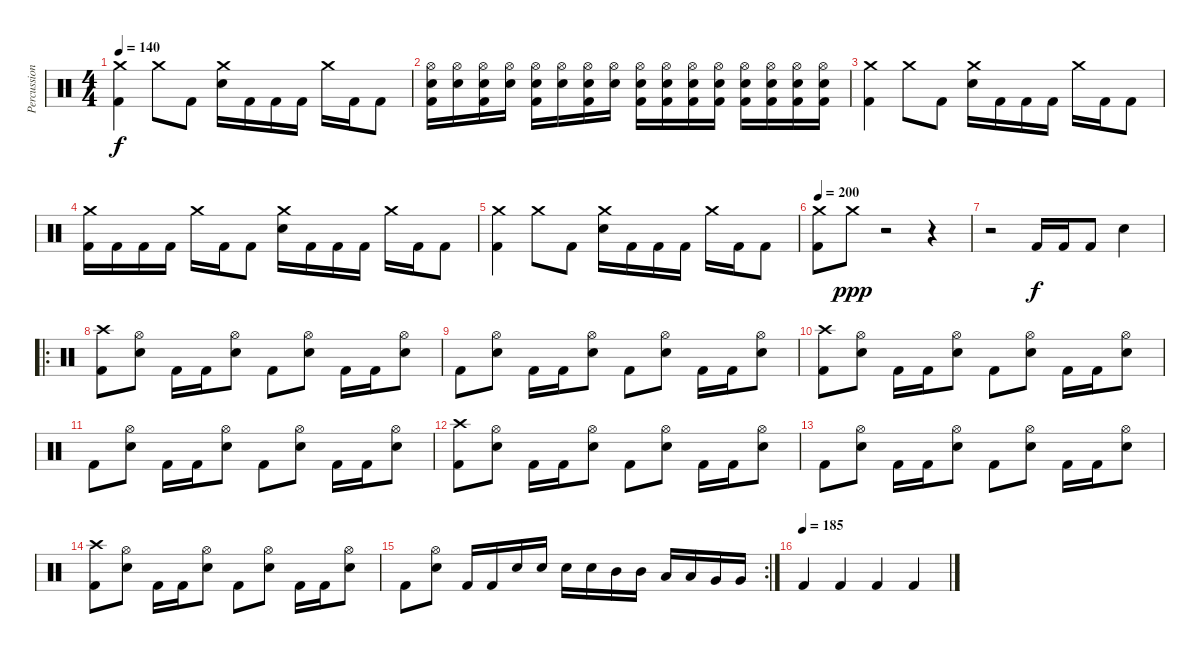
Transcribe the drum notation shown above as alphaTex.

\track ("Percussion" "Percussion") {instrument percussion}
\staff {score}
\articulation defaults
\ts (4 4)
\tempo 140
\clef neutral
\ks c
("Crash medium (hit)" "Kick (hit) 2").4{dy f} "Crash medium (hit)".8 "Kick (hit) 2".8 ("Crash medium (hit)" "Snare (hit) 2").16 "Kick (hit) 2".16 "Kick (hit) 2".16 "Kick (hit) 2".16 "Crash medium (hit)".16 "Kick (hit) 2".16 "Kick (hit) 2".8 |
("Hi-Hat (open)" "Snare (hit) 2" "Kick (hit) 2").16 ("Hi-Hat (open)" "Snare (hit) 2").16 ("Hi-Hat (open)" "Snare (hit) 2" "Kick (hit) 2").16 ("Hi-Hat (open)" "Snare (hit) 2").16 ("Hi-Hat (open)" "Snare (hit) 2" "Kick (hit) 2").16 ("Hi-Hat (open)" "Snare (hit) 2").16 ("Hi-Hat (open)" "Snare (hit) 2" "Kick (hit) 2").16 ("Hi-Hat (open)" "Snare (hit) 2").16 ("Hi-Hat (open)" "Snare (hit) 2" "Kick (hit) 2").16 ("Hi-Hat (open)" "Snare (hit) 2" "Kick (hit) 2").16 ("Hi-Hat (open)" "Snare (hit) 2" "Kick (hit) 2").16 ("Hi-Hat (open)" "Snare (hit) 2" "Kick (hit) 2").16 ("Hi-Hat (open)" "Snare (hit) 2" "Kick (hit) 2").16 ("Hi-Hat (open)" "Snare (hit) 2" "Kick (hit) 2").16 ("Hi-Hat (open)" "Snare (hit) 2" "Kick (hit) 2").16 ("Hi-Hat (open)" "Snare (hit) 2" "Kick (hit) 2").16 |
("Crash medium (hit)" "Kick (hit) 2").4 "Crash medium (hit)".8 "Kick (hit) 2".8 ("Crash medium (hit)" "Snare (hit) 2").16 "Kick (hit) 2".16 "Kick (hit) 2".16 "Kick (hit) 2".16 "Crash medium (hit)".16 "Kick (hit) 2".16 "Kick (hit) 2".8 |
("Crash medium (hit)" "Kick (hit) 2").16 "Kick (hit) 2".16 "Kick (hit) 2".16 "Kick (hit) 2".16 "Crash medium (hit)".16 "Kick (hit) 2".16 "Kick (hit) 2".8 ("Crash medium (hit)" "Snare (hit) 2").16 "Kick (hit) 2".16 "Kick (hit) 2".16 "Kick (hit) 2".16 "Crash medium (hit)".16 "Kick (hit) 2".16 "Kick (hit) 2".8 |
("Crash medium (hit)" "Kick (hit) 2").4 "Crash medium (hit)".8 "Kick (hit) 2".8 ("Crash medium (hit)" "Snare (hit) 2").16 "Kick (hit) 2".16 "Kick (hit) 2".16 "Kick (hit) 2".16 "Crash medium (hit)".16 "Kick (hit) 2".16 "Kick (hit) 2".8 |
\tempo 200
("Crash medium (hit)" "Kick (hit) 2").8 "Crash medium (hit)".8{dy ppp} r.2 r.4 |
r.2 "Kick (hit) 2".16{dy f} "Kick (hit) 2".16 "Kick (hit) 2".8 "Snare (hit) 2".4 |
\ro
("Crash high (hit)" "Kick (hit) 2").8 ("Hi-Hat (open)" "Snare (hit) 2").8 "Kick (hit) 2".16 "Kick (hit) 2".16 ("Hi-Hat (open)" "Snare (hit) 2").8 "Kick (hit) 2".8 ("Hi-Hat (open)" "Snare (hit) 2").8 "Kick (hit) 2".16 "Kick (hit) 2".16 ("Hi-Hat (open)" "Snare (hit) 2").8 |
"Kick (hit) 2".8 ("Hi-Hat (open)" "Snare (hit) 2").8 "Kick (hit) 2".16 "Kick (hit) 2".16 ("Hi-Hat (open)" "Snare (hit) 2").8 "Kick (hit) 2".8 ("Hi-Hat (open)" "Snare (hit) 2").8 "Kick (hit) 2".16 "Kick (hit) 2".16 ("Hi-Hat (open)" "Snare (hit) 2").8 |
("Crash high (hit)" "Kick (hit) 2").8 ("Hi-Hat (open)" "Snare (hit) 2").8 "Kick (hit) 2".16 "Kick (hit) 2".16 ("Hi-Hat (open)" "Snare (hit) 2").8 "Kick (hit) 2".8 ("Hi-Hat (open)" "Snare (hit) 2").8 "Kick (hit) 2".16 "Kick (hit) 2".16 ("Hi-Hat (open)" "Snare (hit) 2").8 |
"Kick (hit) 2".8 ("Hi-Hat (open)" "Snare (hit) 2").8 "Kick (hit) 2".16 "Kick (hit) 2".16 ("Hi-Hat (open)" "Snare (hit) 2").8 "Kick (hit) 2".8 ("Hi-Hat (open)" "Snare (hit) 2").8 "Kick (hit) 2".16 "Kick (hit) 2".16 ("Hi-Hat (open)" "Snare (hit) 2").8 |
("Crash high (hit)" "Kick (hit) 2").8 ("Hi-Hat (open)" "Snare (hit) 2").8 "Kick (hit) 2".16 "Kick (hit) 2".16 ("Hi-Hat (open)" "Snare (hit) 2").8 "Kick (hit) 2".8 ("Hi-Hat (open)" "Snare (hit) 2").8 "Kick (hit) 2".16 "Kick (hit) 2".16 ("Hi-Hat (open)" "Snare (hit) 2").8 |
"Kick (hit) 2".8 ("Hi-Hat (open)" "Snare (hit) 2").8 "Kick (hit) 2".16 "Kick (hit) 2".16 ("Hi-Hat (open)" "Snare (hit) 2").8 "Kick (hit) 2".8 ("Hi-Hat (open)" "Snare (hit) 2").8 "Kick (hit) 2".16 "Kick (hit) 2".16 ("Hi-Hat (open)" "Snare (hit) 2").8 |
("Crash high (hit)" "Kick (hit) 2").8 ("Hi-Hat (open)" "Snare (hit) 2").8 "Kick (hit) 2".16 "Kick (hit) 2".16 ("Hi-Hat (open)" "Snare (hit) 2").8 "Kick (hit) 2".8 ("Hi-Hat (open)" "Snare (hit) 2").8 "Kick (hit) 2".16 "Kick (hit) 2".16 ("Hi-Hat (open)" "Snare (hit) 2").8 |
\rc 2 "Kick (hit) 2".8
("Hi-Hat (open)" "Snare (hit) 2").8 "Kick (hit) 2".16 "Kick (hit) 2".16 "Snare (hit) 2".16 "Snare (hit) 2".16 "Snare (hit) 2".16 "Snare (hit) 2".16 "Mid Tom (hit)".16 "Mid Tom (hit)".16 "Low Tom (hit)".16 "Low Tom (hit)".16 "Very Low Tom (hit)".16 "Very Low Tom (hit)".16 |
\tempo (185)
"Kick (hit) 2".4 "Kick (hit) 2".4 "Kick (hit) 2".4 "Kick (hit) 2".4
